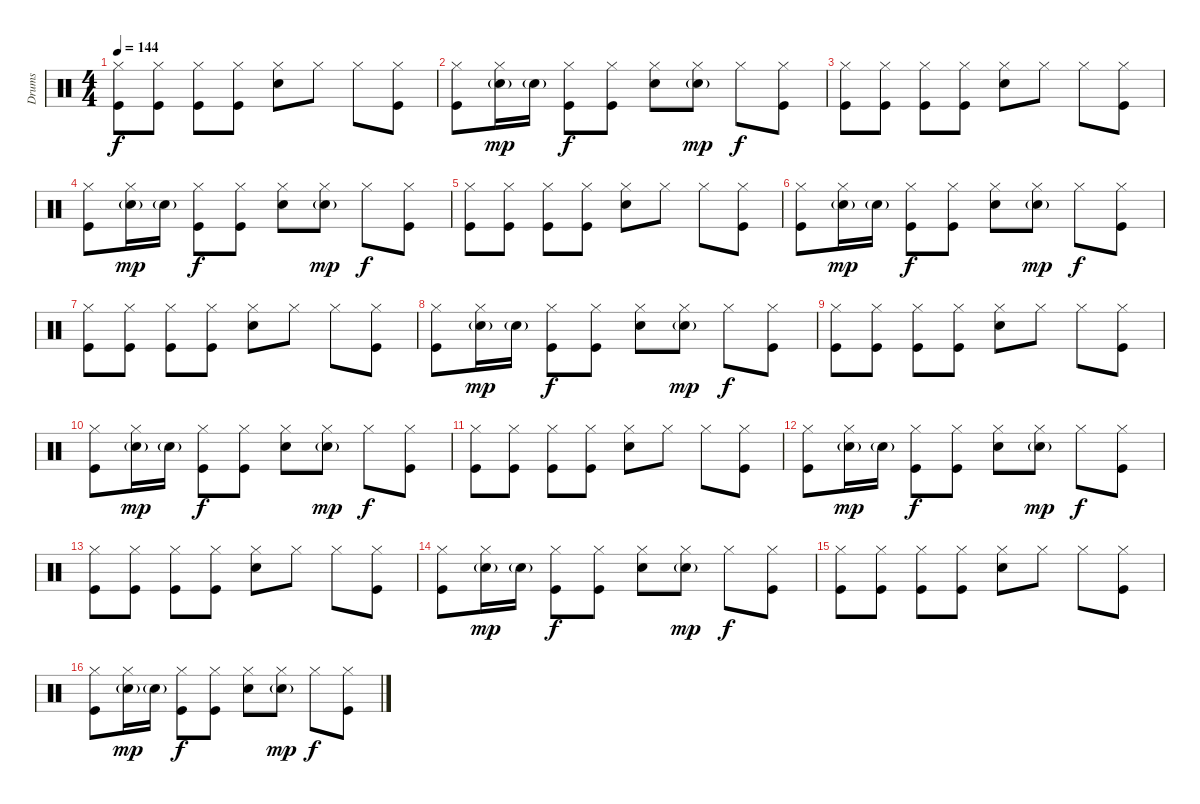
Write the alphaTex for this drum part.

\track ("Drums" "Drums") {instrument percussion}
\staff {score}
\articulation defaults
\ts (4 4)
\tempo 144
\clef neutral
\ks c
("Hi-Hat (closed)" "Kick (hit)").8{dy f} ("Hi-Hat (closed)" "Kick (hit)").8 ("Hi-Hat (closed)" "Kick (hit)").8 ("Hi-Hat (closed)" "Kick (hit)").8 ("Hi-Hat (closed)" "Snare (hit) 2").8 "Hi-Hat (closed)".8 "Hi-Hat (closed)".8 ("Hi-Hat (closed)" "Kick (hit)").8 |
("Hi-Hat (closed)" "Kick (hit)").8 ("Hi-Hat (closed)" "Electric Snare (hit)"{g}).16{dy mp} "Electric Snare (hit)"{g}.16 ("Hi-Hat (closed)" "Kick (hit)").8{dy f} ("Hi-Hat (closed)" "Kick (hit)").8 ("Hi-Hat (closed)" "Snare (hit) 2").8 ("Hi-Hat (closed)" "Electric Snare (hit)"{g}).8{dy mp} "Hi-Hat (closed)".8{dy f} ("Hi-Hat (closed)" "Kick (hit)").8 |
("Hi-Hat (closed)" "Kick (hit)").8 ("Hi-Hat (closed)" "Kick (hit)").8 ("Hi-Hat (closed)" "Kick (hit)").8 ("Hi-Hat (closed)" "Kick (hit)").8 ("Hi-Hat (closed)" "Snare (hit) 2").8 "Hi-Hat (closed)".8 "Hi-Hat (closed)".8 ("Hi-Hat (closed)" "Kick (hit)").8 |
("Hi-Hat (closed)" "Kick (hit)").8 ("Hi-Hat (closed)" "Electric Snare (hit)"{g}).16{dy mp} "Electric Snare (hit)"{g}.16 ("Hi-Hat (closed)" "Kick (hit)").8{dy f} ("Hi-Hat (closed)" "Kick (hit)").8 ("Hi-Hat (closed)" "Snare (hit) 2").8 ("Hi-Hat (closed)" "Electric Snare (hit)"{g}).8{dy mp} "Hi-Hat (closed)".8{dy f} ("Hi-Hat (closed)" "Kick (hit)").8 |
("Hi-Hat (closed)" "Kick (hit)").8 ("Hi-Hat (closed)" "Kick (hit)").8 ("Hi-Hat (closed)" "Kick (hit)").8 ("Hi-Hat (closed)" "Kick (hit)").8 ("Hi-Hat (closed)" "Snare (hit) 2").8 "Hi-Hat (closed)".8 "Hi-Hat (closed)".8 ("Hi-Hat (closed)" "Kick (hit)").8 |
("Hi-Hat (closed)" "Kick (hit)").8 ("Hi-Hat (closed)" "Electric Snare (hit)"{g}).16{dy mp} "Electric Snare (hit)"{g}.16 ("Hi-Hat (closed)" "Kick (hit)").8{dy f} ("Hi-Hat (closed)" "Kick (hit)").8 ("Hi-Hat (closed)" "Snare (hit) 2").8 ("Hi-Hat (closed)" "Electric Snare (hit)"{g}).8{dy mp} "Hi-Hat (closed)".8{dy f} ("Hi-Hat (closed)" "Kick (hit)").8 |
("Hi-Hat (closed)" "Kick (hit)").8{volume 7} ("Hi-Hat (closed)" "Kick (hit)").8 ("Hi-Hat (closed)" "Kick (hit)").8 ("Hi-Hat (closed)" "Kick (hit)").8 ("Hi-Hat (closed)" "Snare (hit) 2").8 "Hi-Hat (closed)".8 "Hi-Hat (closed)".8 ("Hi-Hat (closed)" "Kick (hit)").8 |
("Hi-Hat (closed)" "Kick (hit)").8 ("Hi-Hat (closed)" "Electric Snare (hit)"{g}).16{dy mp} "Electric Snare (hit)"{g}.16 ("Hi-Hat (closed)" "Kick (hit)").8{dy f} ("Hi-Hat (closed)" "Kick (hit)").8 ("Hi-Hat (closed)" "Snare (hit) 2").8 ("Hi-Hat (closed)" "Electric Snare (hit)"{g}).8{dy mp} "Hi-Hat (closed)".8{dy f} ("Hi-Hat (closed)" "Kick (hit)").8 |
("Hi-Hat (closed)" "Kick (hit)").8 ("Hi-Hat (closed)" "Kick (hit)").8 ("Hi-Hat (closed)" "Kick (hit)").8 ("Hi-Hat (closed)" "Kick (hit)").8 ("Hi-Hat (closed)" "Snare (hit) 2").8 "Hi-Hat (closed)".8 "Hi-Hat (closed)".8 ("Hi-Hat (closed)" "Kick (hit)").8 |
("Hi-Hat (closed)" "Kick (hit)").8 ("Hi-Hat (closed)" "Electric Snare (hit)"{g}).16{dy mp} "Electric Snare (hit)"{g}.16 ("Hi-Hat (closed)" "Kick (hit)").8{dy f} ("Hi-Hat (closed)" "Kick (hit)").8 ("Hi-Hat (closed)" "Snare (hit) 2").8 ("Hi-Hat (closed)" "Electric Snare (hit)"{g}).8{dy mp} "Hi-Hat (closed)".8{dy f} ("Hi-Hat (closed)" "Kick (hit)").8 |
("Hi-Hat (closed)" "Kick (hit)").8{volume 3} ("Hi-Hat (closed)" "Kick (hit)").8 ("Hi-Hat (closed)" "Kick (hit)").8 ("Hi-Hat (closed)" "Kick (hit)").8 ("Hi-Hat (closed)" "Snare (hit) 2").8 "Hi-Hat (closed)".8 "Hi-Hat (closed)".8 ("Hi-Hat (closed)" "Kick (hit)").8 |
("Hi-Hat (closed)" "Kick (hit)").8 ("Hi-Hat (closed)" "Electric Snare (hit)"{g}).16{dy mp} "Electric Snare (hit)"{g}.16 ("Hi-Hat (closed)" "Kick (hit)").8{dy f} ("Hi-Hat (closed)" "Kick (hit)").8 ("Hi-Hat (closed)" "Snare (hit) 2").8 ("Hi-Hat (closed)" "Electric Snare (hit)"{g}).8{dy mp} "Hi-Hat (closed)".8{dy f} ("Hi-Hat (closed)" "Kick (hit)").8 |
("Hi-Hat (closed)" "Kick (hit)").8 ("Hi-Hat (closed)" "Kick (hit)").8 ("Hi-Hat (closed)" "Kick (hit)").8 ("Hi-Hat (closed)" "Kick (hit)").8 ("Hi-Hat (closed)" "Snare (hit) 2").8 "Hi-Hat (closed)".8 "Hi-Hat (closed)".8 ("Hi-Hat (closed)" "Kick (hit)").8 |
("Hi-Hat (closed)" "Kick (hit)").8 ("Hi-Hat (closed)" "Electric Snare (hit)"{g}).16{dy mp} "Electric Snare (hit)"{g}.16 ("Hi-Hat (closed)" "Kick (hit)").8{dy f} ("Hi-Hat (closed)" "Kick (hit)").8 ("Hi-Hat (closed)" "Snare (hit) 2").8 ("Hi-Hat (closed)" "Electric Snare (hit)"{g}).8{dy mp} "Hi-Hat (closed)".8{dy f} ("Hi-Hat (closed)" "Kick (hit)").8 |
("Hi-Hat (closed)" "Kick (hit)").8{volume 2} ("Hi-Hat (closed)" "Kick (hit)").8 ("Hi-Hat (closed)" "Kick (hit)").8 ("Hi-Hat (closed)" "Kick (hit)").8 ("Hi-Hat (closed)" "Snare (hit) 2").8 "Hi-Hat (closed)".8 "Hi-Hat (closed)".8 ("Hi-Hat (closed)" "Kick (hit)").8 |
("Hi-Hat (closed)" "Kick (hit)").8 ("Hi-Hat (closed)" "Electric Snare (hit)"{g}).16{dy mp} "Electric Snare (hit)"{g}.16 ("Hi-Hat (closed)" "Kick (hit)").8{dy f} ("Hi-Hat (closed)" "Kick (hit)").8 ("Hi-Hat (closed)" "Snare (hit) 2").8 ("Hi-Hat (closed)" "Electric Snare (hit)"{g}).8{dy mp} "Hi-Hat (closed)".8{dy f} ("Hi-Hat (closed)" "Kick (hit)").8
